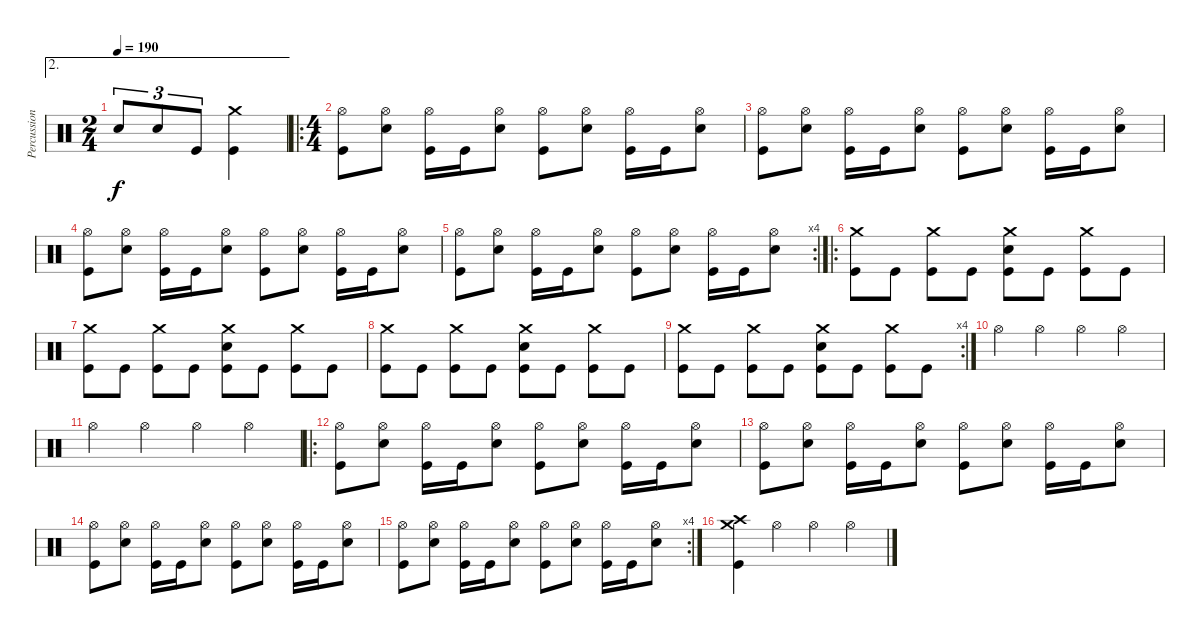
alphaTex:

\track ("Percussion" "Percussion") {instrument percussion}
\staff {score}
\articulation defaults
\ae 2
\ts (2 4)
\tempo 190
\clef neutral
\ks c "Snare (hit) 2".8{tu (3 2) dy f} "Snare (hit) 2".8{tu (3 2)} "Kick (hit)".8{tu (3 2)}
("Crash medium (hit)" "Kick (hit)").4 |
\ro
\ts (4 4)
("Hi-Hat (open)" "Kick (hit)").8 ("Hi-Hat (open)" "Snare (hit) 2").8 ("Hi-Hat (open)" "Kick (hit)").16 "Kick (hit)".16 ("Hi-Hat (open)" "Snare (hit) 2").8 ("Hi-Hat (open)" "Kick (hit)").8 ("Hi-Hat (open)" "Snare (hit) 2").8 ("Hi-Hat (open)" "Kick (hit)").16 "Kick (hit)".16 ("Hi-Hat (open)" "Snare (hit) 2").8 |
("Hi-Hat (open)" "Kick (hit)").8 ("Hi-Hat (open)" "Snare (hit) 2").8 ("Hi-Hat (open)" "Kick (hit)").16 "Kick (hit)".16 ("Hi-Hat (open)" "Snare (hit) 2").8 ("Hi-Hat (open)" "Kick (hit)").8 ("Hi-Hat (open)" "Snare (hit) 2").8 ("Hi-Hat (open)" "Kick (hit)").16 "Kick (hit)".16 ("Hi-Hat (open)" "Snare (hit) 2").8 |
("Hi-Hat (open)" "Kick (hit)").8 ("Hi-Hat (open)" "Snare (hit) 2").8 ("Hi-Hat (open)" "Kick (hit)").16 "Kick (hit)".16 ("Hi-Hat (open)" "Snare (hit) 2").8 ("Hi-Hat (open)" "Kick (hit)").8 ("Hi-Hat (open)" "Snare (hit) 2").8 ("Hi-Hat (open)" "Kick (hit)").16 "Kick (hit)".16 ("Hi-Hat (open)" "Snare (hit) 2").8 |
\rc 4
("Hi-Hat (open)" "Kick (hit)").8 ("Hi-Hat (open)" "Snare (hit) 2").8 ("Hi-Hat (open)" "Kick (hit)").16 "Kick (hit)".16 ("Hi-Hat (open)" "Snare (hit) 2").8 ("Hi-Hat (open)" "Kick (hit)").8 ("Hi-Hat (open)" "Snare (hit) 2").8 ("Hi-Hat (open)" "Kick (hit)").16 "Kick (hit)".16 ("Hi-Hat (open)" "Snare (hit) 2").8 |
\ro
("Crash medium (hit)" "Kick (hit)").8 "Kick (hit)".8 ("Crash medium (hit)" "Kick (hit)").8 "Kick (hit)".8 ("Crash medium (hit)" "Snare (hit) 2" "Kick (hit)").8 "Kick (hit)".8 ("Crash medium (hit)" "Kick (hit)").8 "Kick (hit)".8 |
("Crash medium (hit)" "Kick (hit)").8 "Kick (hit)".8 ("Crash medium (hit)" "Kick (hit)").8 "Kick (hit)".8 ("Crash medium (hit)" "Snare (hit) 2" "Kick (hit)").8 "Kick (hit)".8 ("Crash medium (hit)" "Kick (hit)").8 "Kick (hit)".8 |
("Crash medium (hit)" "Kick (hit)").8 "Kick (hit)".8 ("Crash medium (hit)" "Kick (hit)").8 "Kick (hit)".8 ("Crash medium (hit)" "Snare (hit) 2" "Kick (hit)").8 "Kick (hit)".8 ("Crash medium (hit)" "Kick (hit)").8 "Kick (hit)".8 |
\rc 4
("Crash medium (hit)" "Kick (hit)").8 "Kick (hit)".8 ("Crash medium (hit)" "Kick (hit)").8 "Kick (hit)".8 ("Crash medium (hit)" "Snare (hit) 2" "Kick (hit)").8 "Kick (hit)".8 ("Crash medium (hit)" "Kick (hit)").8 "Kick (hit)".8 |
"Hi-Hat (open)".4 "Hi-Hat (open)".4 "Hi-Hat (open)".4 "Hi-Hat (open)".4 |
"Hi-Hat (open)".4 "Hi-Hat (open)".4 "Hi-Hat (open)".4 "Hi-Hat (open)".4 |
\ro
("Hi-Hat (open)" "Kick (hit)").8 ("Hi-Hat (open)" "Snare (hit) 2").8 ("Hi-Hat (open)" "Kick (hit)").16 "Kick (hit)".16 ("Hi-Hat (open)" "Snare (hit) 2").8 ("Hi-Hat (open)" "Kick (hit)").8 ("Hi-Hat (open)" "Snare (hit) 2").8 ("Hi-Hat (open)" "Kick (hit)").16 "Kick (hit)".16 ("Hi-Hat (open)" "Snare (hit) 2").8 |
("Hi-Hat (open)" "Kick (hit)").8 ("Hi-Hat (open)" "Snare (hit) 2").8 ("Hi-Hat (open)" "Kick (hit)").16 "Kick (hit)".16 ("Hi-Hat (open)" "Snare (hit) 2").8 ("Hi-Hat (open)" "Kick (hit)").8 ("Hi-Hat (open)" "Snare (hit) 2").8 ("Hi-Hat (open)" "Kick (hit)").16 "Kick (hit)".16 ("Hi-Hat (open)" "Snare (hit) 2").8 |
("Hi-Hat (open)" "Kick (hit)").8 ("Hi-Hat (open)" "Snare (hit) 2").8 ("Hi-Hat (open)" "Kick (hit)").16 "Kick (hit)".16 ("Hi-Hat (open)" "Snare (hit) 2").8 ("Hi-Hat (open)" "Kick (hit)").8 ("Hi-Hat (open)" "Snare (hit) 2").8 ("Hi-Hat (open)" "Kick (hit)").16 "Kick (hit)".16 ("Hi-Hat (open)" "Snare (hit) 2").8 |
\rc 4
("Hi-Hat (open)" "Kick (hit)").8 ("Hi-Hat (open)" "Snare (hit) 2").8 ("Hi-Hat (open)" "Kick (hit)").16 "Kick (hit)".16 ("Hi-Hat (open)" "Snare (hit) 2").8 ("Hi-Hat (open)" "Kick (hit)").8 ("Hi-Hat (open)" "Snare (hit) 2").8 ("Hi-Hat (open)" "Kick (hit)").16 "Kick (hit)".16 ("Hi-Hat (open)" "Snare (hit) 2").8 |
("Crash medium (hit)" "Crash high (hit)" "Kick (hit)").4 "Hi-Hat (open)".4 "Hi-Hat (open)".4 "Hi-Hat (open)".4
